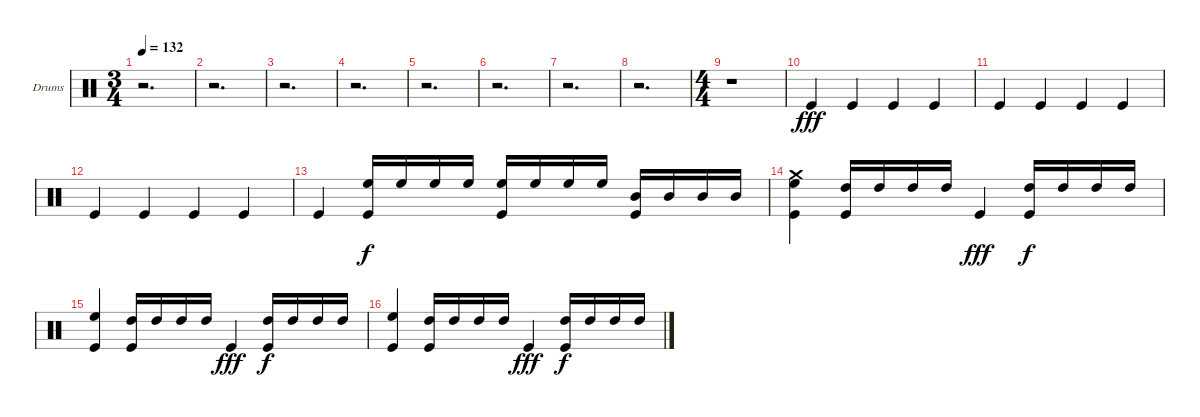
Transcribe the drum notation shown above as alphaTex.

\bracketExtendMode groupsimilarinstruments
\firstSystemTrackNameOrientation horizontal
\otherSystemsTrackNameOrientation horizontal
\track ("Larry" "Drums") {instrument percussion}
\staff {score}
\articulation defaults
\ts (3 4)
\tempo 132
\clef neutral
\ks c
r.2{d dy fff} |
r.2{d} |
r.2{d} |
r.2{d} |
r.2{d} |
r.2{d} |
r.2{d} |
r.2{d} |
\ts (4 4)
r.1 |
"Kick (hit)".4 "Kick (hit)".4 "Kick (hit)".4 "Kick (hit)".4 |
"Kick (hit)".4 "Kick (hit)".4 "Kick (hit)".4 "Kick (hit)".4 |
"Kick (hit)".4 "Kick (hit)".4 "Kick (hit)".4 "Kick (hit)".4 |
"Kick (hit)".4 ("High Floor Tom (hit)" "Kick (hit)").16{dy f} "High Floor Tom (hit)".16 "High Floor Tom (hit)".16 "High Floor Tom (hit)".16 ("High Floor Tom (hit)" "Kick (hit)").16 "High Floor Tom (hit)".16 "High Floor Tom (hit)".16 "High Floor Tom (hit)".16 ("Mid Tom (hit)" "Kick (hit)").16 "Mid Tom (hit)".16 "Mid Tom (hit)".16 "Mid Tom (hit)".16 |
("Crash medium (hit)" "High Floor Tom (hit)" "Kick (hit)").4 ("High Tom (hit)" "Kick (hit)").16 "High Tom (hit)".16 "High Tom (hit)".16 "High Tom (hit)".16 "Kick (hit)".4{dy fff} ("High Tom (hit)" "Kick (hit)").16{dy f} "High Tom (hit)".16 "High Tom (hit)".16 "High Tom (hit)".16 |
("High Floor Tom (hit)" "Kick (hit)").4 ("High Tom (hit)" "Kick (hit)").16 "High Tom (hit)".16 "High Tom (hit)".16 "High Tom (hit)".16 "Kick (hit)".4{dy fff} ("High Tom (hit)" "Kick (hit)").16{dy f} "High Tom (hit)".16 "High Tom (hit)".16 "High Tom (hit)".16 |
("High Floor Tom (hit)" "Kick (hit)").4 ("High Tom (hit)" "Kick (hit)").16 "High Tom (hit)".16 "High Tom (hit)".16 "High Tom (hit)".16 "Kick (hit)".4{dy fff} ("High Tom (hit)" "Kick (hit)").16{dy f} "High Tom (hit)".16 "High Tom (hit)".16 "High Tom (hit)".16
